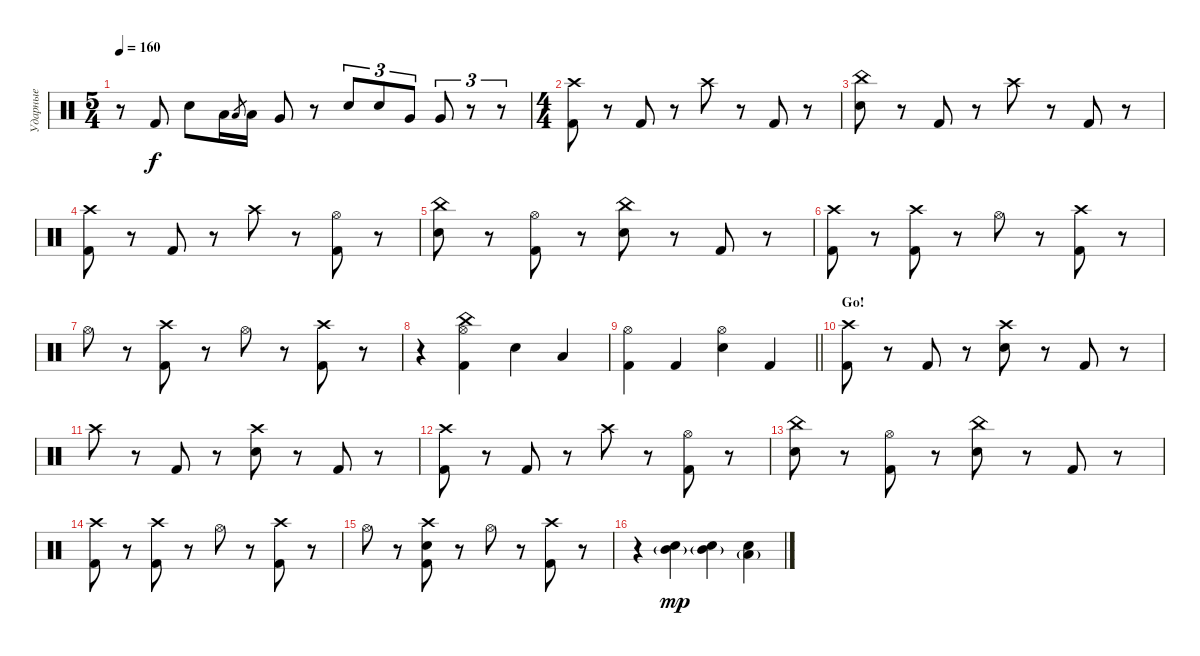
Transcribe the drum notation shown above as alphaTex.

\track ("Ударные" "Ударные") {instrument percussion}
\staff {score}
\articulation defaults
\ts (5 4)
\tempo 160
\clef neutral
\ks c
r.8{dy f} "Kick (hit) 2".8 "Electric Snare (hit)".8 "Low Tom (hit)".16 "Low Tom (hit)".8{gr} "Low Tom (hit)".16 "Very Low Tom (hit)".8 r.8 "Electric Snare (hit)".8{tu (3 2)} "Electric Snare (hit)".8{tu (3 2)} "Very Low Tom (hit)".8{tu (3 2)} "Very Low Tom (hit)".8{tu (3 2)} r.8{tu (3 2)} r.8{tu (3 2)} |
\ts (4 4)
("Kick (hit) 2" "Crash high (hit)").8 r.8 "Kick (hit) 2".8 r.8 "Crash high (hit)".8 r.8 "Kick (hit) 2".8 r.8 |
("Electric Snare (hit)" "China (hit)").8 r.8 "Kick (hit) 2".8 r.8 "Crash high (hit)".8 r.8 "Kick (hit) 2".8 r.8 |
("Kick (hit) 2" "Crash high (hit)").8 r.8 "Kick (hit) 2".8 r.8 "Crash high (hit)".8 r.8 ("Kick (hit) 2" "Hi-Hat (open)").8 r.8 |
("Electric Snare (hit)" "China (hit)").8 r.8 ("Kick (hit) 2" "Hi-Hat (open)").8 r.8 ("Electric Snare (hit)" "China (hit)").8 r.8 "Kick (hit) 2".8 r.8 |
("Kick (hit) 2" "Crash high (hit)").8 r.8 ("Kick (hit) 2" "Crash high (hit)").8 r.8 "Hi-Hat (open)".8 r.8 ("Kick (hit) 2" "Crash high (hit)").8 r.8 |
"Hi-Hat (open)".8 r.8 ("Kick (hit) 2" "Crash high (hit)").8 r.8 "Hi-Hat (open)".8 r.8 ("Kick (hit) 2" "Crash high (hit)").8 r.8 |
r.4 ("Hi-Hat (open)" "Kick (hit) 2" "China (hit)").4 "Electric Snare (hit)".4 "Low Floor Tom (hit)".4 |
\barLineRight lightlight
("Kick (hit) 2" "Hi-Hat (open)").4 "Kick (hit) 2".4 ("Electric Snare (hit)" "Hi-Hat (open)").4 "Kick (hit) 2".4 |
\section ("" "Go!")
("Kick (hit) 2" "Crash high (hit)").8 r.8 "Kick (hit) 2".8 r.8 ("Electric Snare (hit)" "Crash high (hit)").8 r.8 "Kick (hit) 2".8 r.8 |
"Crash high (hit)".8 r.8 "Kick (hit) 2".8 r.8 ("Electric Snare (hit)" "Crash high (hit)").8 r.8 "Kick (hit) 2".8 r.8 |
("Kick (hit) 2" "Crash high (hit)").8 r.8 "Kick (hit) 2".8 r.8 "Crash high (hit)".8 r.8 ("Kick (hit) 2" "Hi-Hat (open)").8 r.8 |
("Electric Snare (hit)" "China (hit)").8 r.8 ("Kick (hit) 2" "Hi-Hat (open)").8 r.8 ("Electric Snare (hit)" "China (hit)").8 r.8 "Kick (hit) 2".8 r.8 |
("Kick (hit) 2" "Crash high (hit)").8 r.8 ("Kick (hit) 2" "Crash high (hit)").8 r.8 "Hi-Hat (open)".8 r.8 ("Kick (hit) 2" "Crash high (hit)").8 r.8 |
"Hi-Hat (open)".8 r.8 ("Kick (hit) 2" "Electric Snare (hit)" "Crash high (hit)").8 r.8 "Hi-Hat (open)".8 r.8 ("Kick (hit) 2" "Crash high (hit)").8 r.8 |
r.4 ("Mid Tom (hit)"{g} "Electric Snare (hit)").4{dy mp} ("Mid Tom (hit)"{g} "Electric Snare (hit)").4 ("Low Tom (hit)"{g} "Electric Snare (hit)").4
